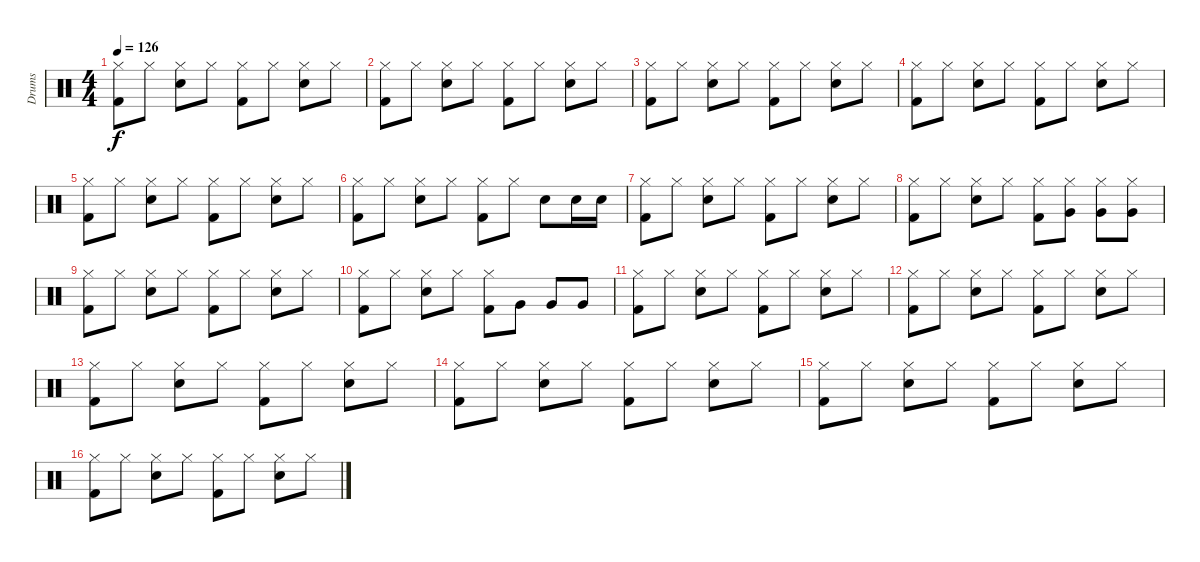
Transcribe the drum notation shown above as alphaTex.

\track ("Drums" "Drums") {instrument percussion}
\staff {score}
\articulation defaults
\ts (4 4)
\tempo 126
\clef neutral
\ks c
("Kick (hit) 2" "Hi-Hat (closed)").8{dy f} "Hi-Hat (closed)".8 ("Snare (hit) 2" "Hi-Hat (closed)").8 "Hi-Hat (closed)".8 ("Kick (hit) 2" "Hi-Hat (closed)").8 "Hi-Hat (closed)".8 ("Snare (hit) 2" "Hi-Hat (closed)").8 "Hi-Hat (closed)".8 |
("Kick (hit) 2" "Hi-Hat (closed)").8 "Hi-Hat (closed)".8 ("Snare (hit) 2" "Hi-Hat (closed)").8 "Hi-Hat (closed)".8 ("Kick (hit) 2" "Hi-Hat (closed)").8 "Hi-Hat (closed)".8 ("Snare (hit) 2" "Hi-Hat (closed)").8 "Hi-Hat (closed)".8 |
("Kick (hit) 2" "Hi-Hat (closed)").8 "Hi-Hat (closed)".8 ("Snare (hit) 2" "Hi-Hat (closed)").8 "Hi-Hat (closed)".8 ("Kick (hit) 2" "Hi-Hat (closed)").8 "Hi-Hat (closed)".8 ("Snare (hit) 2" "Hi-Hat (closed)").8 "Hi-Hat (closed)".8 |
("Kick (hit) 2" "Hi-Hat (closed)").8 "Hi-Hat (closed)".8 ("Snare (hit) 2" "Hi-Hat (closed)").8 "Hi-Hat (closed)".8 ("Kick (hit) 2" "Hi-Hat (closed)").8 "Hi-Hat (closed)".8 ("Snare (hit) 2" "Hi-Hat (closed)").8 "Hi-Hat (closed)".8 |
("Kick (hit) 2" "Hi-Hat (closed)").8 "Hi-Hat (closed)".8 ("Snare (hit) 2" "Hi-Hat (closed)").8 "Hi-Hat (closed)".8 ("Kick (hit) 2" "Hi-Hat (closed)").8 "Hi-Hat (closed)".8 ("Snare (hit) 2" "Hi-Hat (closed)").8 "Hi-Hat (closed)".8 |
("Kick (hit) 2" "Hi-Hat (closed)").8 "Hi-Hat (closed)".8 ("Snare (hit) 2" "Hi-Hat (closed)").8 "Hi-Hat (closed)".8 ("Kick (hit) 2" "Hi-Hat (closed)").8 "Hi-Hat (closed)".8 "Snare (hit) 2".8 "Snare (hit) 2".16 "Snare (hit) 2".16 |
("Kick (hit) 2" "Hi-Hat (closed)").8 "Hi-Hat (closed)".8 ("Snare (hit) 2" "Hi-Hat (closed)").8 "Hi-Hat (closed)".8 ("Kick (hit) 2" "Hi-Hat (closed)").8 "Hi-Hat (closed)".8 ("Snare (hit) 2" "Hi-Hat (closed)").8 "Hi-Hat (closed)".8 |
("Kick (hit) 2" "Hi-Hat (closed)").8 "Hi-Hat (closed)".8 ("Snare (hit) 2" "Hi-Hat (closed)").8 "Hi-Hat (closed)".8 ("Kick (hit) 2" "Hi-Hat (closed)").8 ("Very Low Tom (hit)" "Hi-Hat (closed)").8 ("Very Low Tom (hit)" "Hi-Hat (closed)").8 ("Very Low Tom (hit)" "Hi-Hat (closed)").8 |
("Kick (hit) 2" "Hi-Hat (closed)").8 "Hi-Hat (closed)".8 ("Snare (hit) 2" "Hi-Hat (closed)").8 "Hi-Hat (closed)".8 ("Kick (hit) 2" "Hi-Hat (closed)").8 "Hi-Hat (closed)".8 ("Snare (hit) 2" "Hi-Hat (closed)").8 "Hi-Hat (closed)".8 |
("Kick (hit) 2" "Hi-Hat (closed)").8 "Hi-Hat (closed)".8 ("Snare (hit) 2" "Hi-Hat (closed)").8 "Hi-Hat (closed)".8 ("Kick (hit) 2" "Hi-Hat (closed)").8 "Very Low Tom (hit)".8 "Very Low Tom (hit)".8 "Very Low Tom (hit)".8 |
("Kick (hit) 2" "Hi-Hat (closed)").8 "Hi-Hat (closed)".8 ("Snare (hit) 2" "Hi-Hat (closed)").8 "Hi-Hat (closed)".8 ("Kick (hit) 2" "Hi-Hat (closed)").8 "Hi-Hat (closed)".8 ("Snare (hit) 2" "Hi-Hat (closed)").8 "Hi-Hat (closed)".8 |
("Kick (hit) 2" "Hi-Hat (closed)").8 "Hi-Hat (closed)".8 ("Snare (hit) 2" "Hi-Hat (closed)").8 "Hi-Hat (closed)".8 ("Kick (hit) 2" "Hi-Hat (closed)").8 "Hi-Hat (closed)".8 ("Snare (hit) 2" "Hi-Hat (closed)").8 "Hi-Hat (closed)".8 |
("Kick (hit) 2" "Hi-Hat (closed)").8 "Hi-Hat (closed)".8 ("Snare (hit) 2" "Hi-Hat (closed)").8 "Hi-Hat (closed)".8 ("Kick (hit) 2" "Hi-Hat (closed)").8 "Hi-Hat (closed)".8 ("Snare (hit) 2" "Hi-Hat (closed)").8 "Hi-Hat (closed)".8 |
("Kick (hit) 2" "Hi-Hat (closed)").8 "Hi-Hat (closed)".8 ("Snare (hit) 2" "Hi-Hat (closed)").8 "Hi-Hat (closed)".8 ("Kick (hit) 2" "Hi-Hat (closed)").8 "Hi-Hat (closed)".8 ("Snare (hit) 2" "Hi-Hat (closed)").8 "Hi-Hat (closed)".8 |
("Kick (hit) 2" "Hi-Hat (closed)").8 "Hi-Hat (closed)".8 ("Snare (hit) 2" "Hi-Hat (closed)").8 "Hi-Hat (closed)".8 ("Kick (hit) 2" "Hi-Hat (closed)").8 "Hi-Hat (closed)".8 ("Snare (hit) 2" "Hi-Hat (closed)").8 "Hi-Hat (closed)".8 |
("Kick (hit) 2" "Hi-Hat (closed)").8 "Hi-Hat (closed)".8 ("Snare (hit) 2" "Hi-Hat (closed)").8 "Hi-Hat (closed)".8 ("Kick (hit) 2" "Hi-Hat (closed)").8 "Hi-Hat (closed)".8 ("Snare (hit) 2" "Hi-Hat (closed)").8 "Hi-Hat (closed)".8
